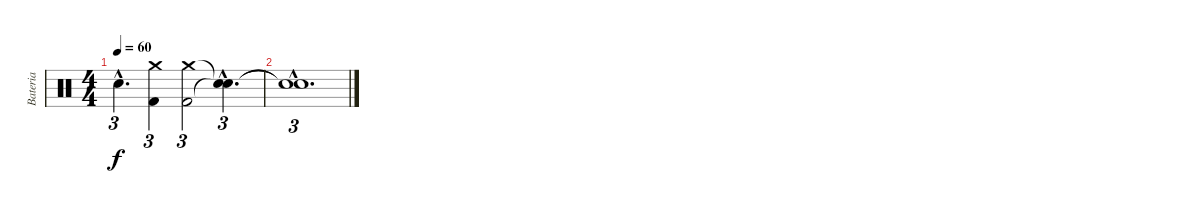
\track ("Bateria" "Bateria") {instrument percussion}
\staff {score}
\articulation defaults
\ts (4 4)
\tempo 60
\clef neutral
\ks c "Snare (hit) 2"{hac}.4{d tu (3 2) dy f}
("Crash medium (hit)" "Kick (hit) 2").4{tu (3 2)} ("Crash medium (hit)" "Kick (hit) 2").2{tu (3 2)} ("Snare (hit)"{hac t} "Snare (hit)"{hac t}).4{d tu (3 2)} |
("Snare (hit)"{hac t} "Snare (hit)"{hac t}).1{d tu (3 2)}
